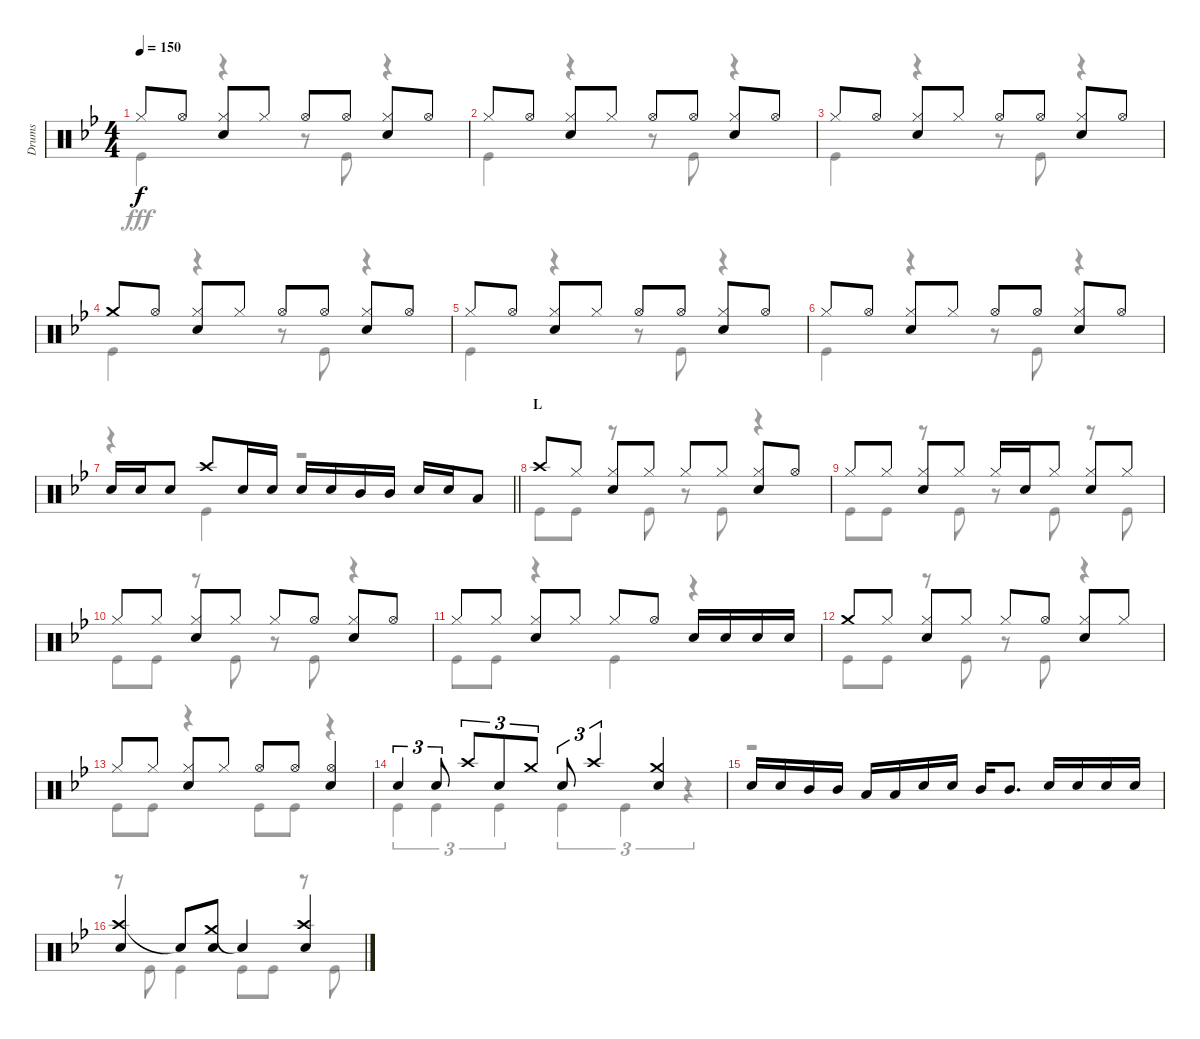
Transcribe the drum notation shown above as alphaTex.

\track ("Drums" "Drums") {instrument percussion}
\staff {score}
\articulation defaults
\voice
\ts (4 4)
\tempo 150
\clef neutral
\ks bb "Hi-Hat (closed)".8{dy f} "Hi-Hat (open)".8
("Hi-Hat (closed)" "Snare (hit) 2").8 "Hi-Hat (closed)".8 "Hi-Hat (open)".8 "Hi-Hat (open)".8 ("Hi-Hat (closed)" "Snare (hit) 2").8 "Hi-Hat (open)".8 |
"Hi-Hat (closed)".8 "Hi-Hat (open)".8 ("Hi-Hat (closed)" "Snare (hit) 2").8 "Hi-Hat (closed)".8 "Hi-Hat (open)".8 "Hi-Hat (open)".8 ("Hi-Hat (closed)" "Snare (hit) 2").8 "Hi-Hat (open)".8 |
"Hi-Hat (closed)".8 "Hi-Hat (open)".8 ("Hi-Hat (closed)" "Snare (hit) 2").8 "Hi-Hat (closed)".8 "Hi-Hat (open)".8 "Hi-Hat (open)".8 ("Hi-Hat (closed)" "Snare (hit) 2").8 "Hi-Hat (open)".8 |
"Crash medium (hit)".8 "Hi-Hat (open)".8 ("Hi-Hat (closed)" "Snare (hit) 2").8 "Hi-Hat (closed)".8 "Hi-Hat (open)".8 "Hi-Hat (open)".8 ("Hi-Hat (closed)" "Snare (hit) 2").8 "Hi-Hat (open)".8 |
"Hi-Hat (closed)".8 "Hi-Hat (open)".8 ("Hi-Hat (closed)" "Snare (hit) 2").8 "Hi-Hat (closed)".8 "Hi-Hat (open)".8 "Hi-Hat (open)".8 ("Hi-Hat (closed)" "Snare (hit) 2").8 "Hi-Hat (open)".8 |
"Hi-Hat (closed)".8 "Hi-Hat (open)".8 ("Hi-Hat (closed)" "Snare (hit) 2").8 "Hi-Hat (closed)".8 "Hi-Hat (open)".8 "Hi-Hat (open)".8 ("Hi-Hat (closed)" "Snare (hit) 2").8 "Hi-Hat (open)".8 |
\barLineRight lightlight "Snare (hit) 2".16 "Snare (hit) 2".16 "Snare (hit) 2".8 "Crash high (hit)".8 "Snare (hit) 2".16 "Snare (hit) 2".16 "Snare (hit) 2".16 "Snare (hit) 2".16 "Mid Tom (hit)".16 "Mid Tom (hit)".16 "Snare (hit) 2".16 "Snare (hit) 2".16 "Low Tom (hit)".8
|
\section ("" "L")
"Crash high (hit)".8 "Hi-Hat (closed)".8 ("Hi-Hat (closed)" "Snare (hit) 2").8 "Hi-Hat (closed)".8 "Hi-Hat (closed)".8 "Hi-Hat (closed)".8 ("Hi-Hat (closed)" "Snare (hit) 2").8 "Hi-Hat (open)".8 |
"Hi-Hat (closed)".8 "Hi-Hat (closed)".8 ("Hi-Hat (closed)" "Snare (hit) 2").8 "Hi-Hat (closed)".8 "Hi-Hat (closed)".16 "Snare (hit) 2".16 "Hi-Hat (closed)".8 ("Hi-Hat (closed)" "Snare (hit) 2").8 "Hi-Hat (closed)".8 |
"Hi-Hat (closed)".8 "Hi-Hat (closed)".8 ("Hi-Hat (closed)" "Snare (hit) 2").8 "Hi-Hat (closed)".8 "Hi-Hat (closed)".8 "Hi-Hat (open)".8 ("Hi-Hat (closed)" "Snare (hit) 2").8 "Hi-Hat (open)".8 |
"Hi-Hat (closed)".8 "Hi-Hat (closed)".8 ("Hi-Hat (closed)" "Snare (hit) 2").8 "Hi-Hat (closed)".8 "Hi-Hat (closed)".8 "Hi-Hat (open)".8 "Snare (hit) 2".16 "Snare (hit) 2".16 "Snare (hit) 2".16 "Snare (hit) 2".16 |
"Crash medium (hit)".8 "Hi-Hat (closed)".8 ("Hi-Hat (closed)" "Snare (hit) 2").8 "Hi-Hat (closed)".8 "Hi-Hat (closed)".8 "Hi-Hat (open)".8 ("Hi-Hat (closed)" "Snare (hit) 2").8 "Hi-Hat (closed)".8 |
"Hi-Hat (closed)".8 "Hi-Hat (closed)".8 ("Hi-Hat (closed)" "Snare (hit) 2").8 "Hi-Hat (closed)".8 "Hi-Hat (open)".8 "Hi-Hat (open)".8 ("Hi-Hat (open)" "Snare (hit) 2").4 |
"Snare (hit) 2".4{tu (3 2)} "Snare (hit) 2".8{tu (3 2)} "Crash high (hit)".8{tu (3 2)} "Snare (hit) 2".8{tu (3 2)} "Crash medium (hit)".8{tu (3 2)} "Snare (hit) 2".8{tu (3 2)} "Crash high (hit)".4{tu (3 2)} ("Crash medium (hit)" "Snare (hit) 2").4 |
"Snare (hit) 2".16 "Snare (hit) 2".16 "Mid Tom (hit)".16 "Mid Tom (hit)".16 "Low Tom (hit)".16 "Low Tom (hit)".16 "Snare (hit) 2".16 "Snare (hit) 2".16 "Mid Tom (hit)".16 "Mid Tom (hit)".8{d} "Snare (hit) 2".16 "Snare (hit) 2".16 "Snare (hit) 2".16 "Snare (hit) 2".16 |
("Crash high (hit)" "Snare (hit) 2").4 "Snare (hit)"{t}.8 ("Crash medium (hit)" "Snare (hit) 2").8 "Snare (hit)"{t}.4 ("Crash high (hit)" "Snare (hit) 2").4
\voice
\clef neutral
\ottava regular
\simile none
\ks bb "Kick (hit)".4{dy fff}
r.4 r.8 "Kick (hit)".8 r.4 |
"Kick (hit)".4 r.4 r.8 "Kick (hit)".8 r.4 |
"Kick (hit)".4 r.4 r.8 "Kick (hit)".8 r.4 |
"Kick (hit)".4 r.4 r.8 "Kick (hit)".8 r.4 |
"Kick (hit)".4 r.4 r.8 "Kick (hit)".8 r.4 |
"Kick (hit)".4 r.4 r.8 "Kick (hit)".8 r.4 |
\barLineRight lightlight
r.4 "Kick (hit)".4 r.2 |
"Kick (hit)".8 "Kick (hit)".8 r.8 "Kick (hit)".8 r.8 "Kick (hit)".8 r.4 |
"Kick (hit)".8 "Kick (hit)".8 r.8 "Kick (hit)".8 r.8 "Kick (hit)".8 r.8 "Kick (hit)".8 |
"Kick (hit)".8 "Kick (hit)".8 r.8 "Kick (hit)".8 r.8 "Kick (hit)".8 r.4 |
"Kick (hit)".8 "Kick (hit)".8 r.4 "Kick (hit)".4 r.4 |
"Kick (hit)".8 "Kick (hit)".8 r.8 "Kick (hit)".8 r.8 "Kick (hit)".8 r.4 |
"Kick (hit)".8 "Kick (hit)".8 r.4 "Kick (hit)".8 "Kick (hit)".8 r.4 |
"Kick (hit)".4{tu (3 2)} "Kick (hit)".4{tu (3 2)} "Kick (hit)".4{tu (3 2)} "Kick (hit)".4{tu (3 2)} "Kick (hit)".4{tu (3 2)} r.4{tu (3 2)} |
r.1 |
r.8 "Kick (hit)".8 "Kick (hit)".4 "Kick (hit)".8 "Kick (hit)".8 r.8 "Kick (hit)".8
